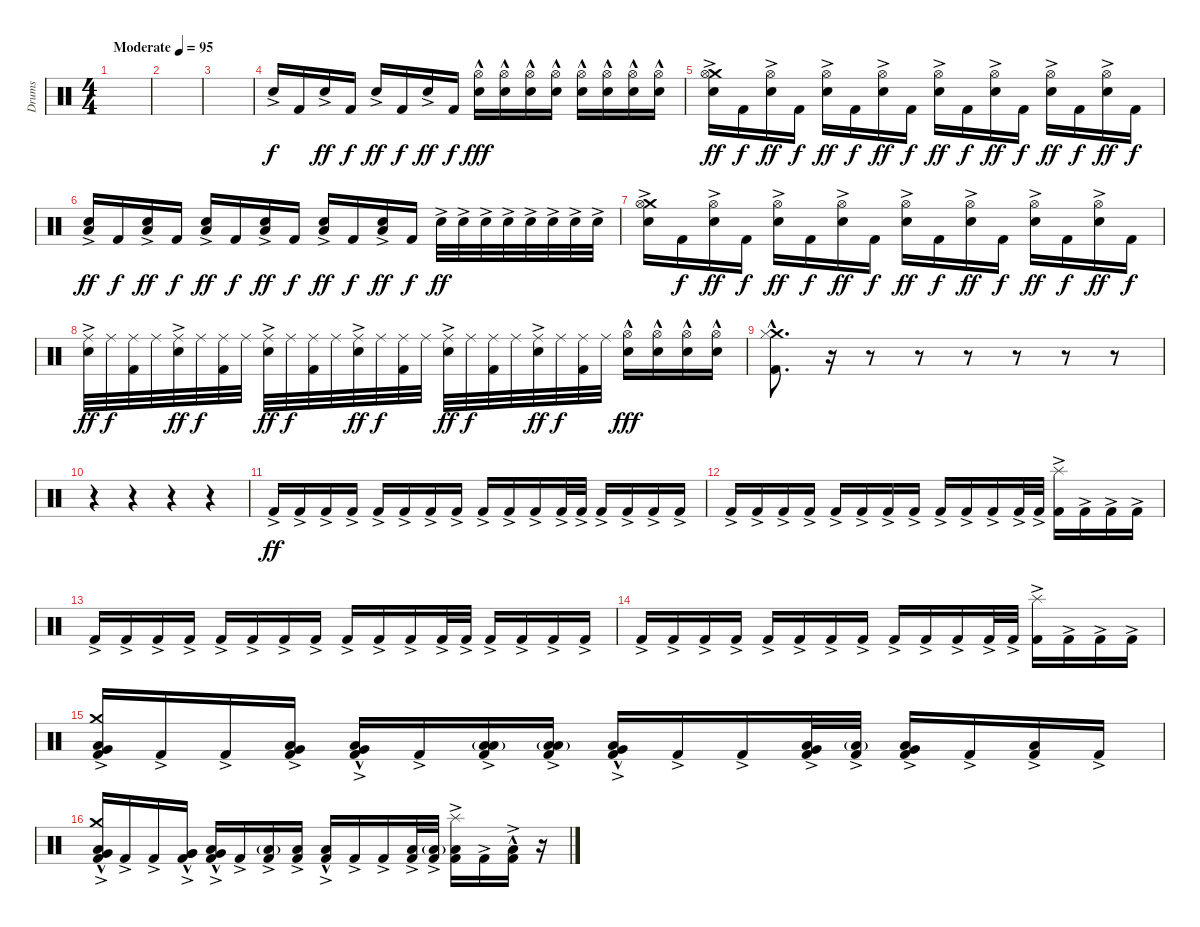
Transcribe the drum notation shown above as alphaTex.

\track ("Drums" "Drums") {instrument percussion}
\staff {score}
\articulation defaults
\ts (4 4)
\tempo (95 "Moderate")
\clef neutral
\ks c
|
|
|
"Snare (hit) 2"{ac}.16 "Kick (hit) 2".16{dy f} "Snare (hit) 2"{ac}.16{dy ff} "Kick (hit) 2".16{dy f} "Snare (hit) 2"{ac}.16{dy ff} "Kick (hit) 2".16{dy f} "Snare (hit) 2"{ac}.16{dy ff} "Kick (hit) 2".16{dy f} ("Hi-Hat (open)" "Snare (hit) 2"{hac}).16{dy fff} ("Hi-Hat (open)" "Snare (hit) 2"{hac}).16 ("Hi-Hat (open)" "Snare (hit) 2"{hac}).16 ("Hi-Hat (open)" "Snare (hit) 2"{hac}).16 ("Hi-Hat (open)" "Snare (hit) 2"{hac}).16 ("Hi-Hat (open)" "Snare (hit) 2"{hac}).16 ("Hi-Hat (open)" "Snare (hit) 2"{hac}).16 ("Hi-Hat (open)" "Snare (hit) 2"{hac}).16 |
("Crash medium (hit)" "Hi-Hat (open)" "Snare (hit) 2"{ac}).16{dy ff} "Kick (hit) 2".16{dy f} ("Hi-Hat (open)" "Snare (hit) 2"{ac}).16{dy ff} "Kick (hit) 2".16{dy f} ("Hi-Hat (open)" "Snare (hit) 2"{ac}).16{dy ff} "Kick (hit) 2".16{dy f} ("Hi-Hat (open)" "Snare (hit) 2"{ac}).16{dy ff} "Kick (hit) 2".16{dy f} ("Hi-Hat (open)" "Snare (hit) 2"{ac}).16{dy ff} "Kick (hit) 2".16{dy f} ("Hi-Hat (open)" "Snare (hit) 2"{ac}).16{dy ff} "Kick (hit) 2".16{dy f} ("Hi-Hat (open)" "Snare (hit) 2"{ac}).16{dy ff} "Kick (hit) 2".16{dy f} ("Hi-Hat (open)" "Snare (hit) 2"{ac}).16{dy ff} "Kick (hit) 2".16{dy f} |
("Low Floor Tom (hit)" "Snare (hit) 2"{ac}).16{dy ff} "Kick (hit) 2".16{dy f} ("Low Floor Tom (hit)" "Snare (hit) 2"{ac}).16{dy ff} "Kick (hit) 2".16{dy f} ("Low Floor Tom (hit)" "Snare (hit) 2"{ac}).16{dy ff} "Kick (hit) 2".16{dy f} ("Low Floor Tom (hit)" "Snare (hit) 2"{ac}).16{dy ff} "Kick (hit) 2".16{dy f} ("Low Floor Tom (hit)" "Snare (hit) 2"{ac}).16{dy ff} "Kick (hit) 2".16{dy f} ("Low Floor Tom (hit)" "Snare (hit) 2"{ac}).16{dy ff} "Kick (hit) 2".16{dy f} "Snare (hit) 2"{ac}.32{dy ff} "Snare (hit) 2"{ac}.32 "Snare (hit) 2"{ac}.32 "Snare (hit) 2"{ac}.32 "Snare (hit) 2"{ac}.32 "Snare (hit) 2"{ac}.32 "Snare (hit) 2"{ac}.32 "Snare (hit) 2"{ac}.32 |
("Crash medium (hit)" "Hi-Hat (open)" "Snare (hit) 2"{ac}).16 "Kick (hit) 2".16{dy f} ("Hi-Hat (open)" "Snare (hit) 2"{ac}).16{dy ff} "Kick (hit) 2".16{dy f} ("Hi-Hat (open)" "Snare (hit) 2"{ac}).16{dy ff} "Kick (hit) 2".16{dy f} ("Hi-Hat (open)" "Snare (hit) 2"{ac}).16{dy ff} "Kick (hit) 2".16{dy f} ("Hi-Hat (open)" "Snare (hit) 2"{ac}).16{dy ff} "Kick (hit) 2".16{dy f} ("Hi-Hat (open)" "Snare (hit) 2"{ac}).16{dy ff} "Kick (hit) 2".16{dy f} ("Hi-Hat (open)" "Snare (hit) 2"{ac}).16{dy ff} "Kick (hit) 2".16{dy f} ("Hi-Hat (open)" "Snare (hit) 2"{ac}).16{dy ff} "Kick (hit) 2".16{dy f} |
("Ride (middle)"{ac} "Snare (hit) 2"{ac}).32{dy ff} "Ride (middle)".32{dy f} ("Ride (middle)" "Kick (hit) 2").32 "Ride (middle)".32 ("Ride (middle)"{ac} "Snare (hit) 2"{ac}).32{dy ff} "Ride (middle)".32{dy f} ("Ride (middle)" "Kick (hit) 2").32 "Ride (middle)".32 ("Ride (middle)"{ac} "Snare (hit) 2"{ac}).32{dy ff} "Ride (middle)".32{dy f} ("Ride (middle)" "Kick (hit) 2").32 "Ride (middle)".32 ("Ride (middle)"{ac} "Snare (hit) 2"{ac}).32{dy ff} "Ride (middle)".32{dy f} ("Ride (middle)" "Kick (hit) 2").32 "Ride (middle)".32 ("Ride (middle)"{ac} "Snare (hit) 2"{ac}).32{dy ff} "Ride (middle)".32{dy f} ("Ride (middle)" "Kick (hit) 2").32 "Ride (middle)".32 ("Ride (middle)"{ac} "Snare (hit) 2"{ac}).32{dy ff} "Ride (middle)".32{dy f} ("Ride (middle)" "Kick (hit) 2").32 "Ride (middle)".32 ("Hi-Hat (open)" "Snare (hit) 2"{hac}).16{dy fff} ("Hi-Hat (open)" "Snare (hit) 2"{hac}).16 ("Hi-Hat (open)" "Snare (hit) 2"{hac}).16 ("Hi-Hat (open)" "Snare (hit) 2"{hac}).16 |
("Crash medium (hit)"{hac} "Hi-Hat (closed)" "Kick (hit) 2"{hac}).8{d} r.16{volume 0} r.8 r.8 r.8 r.8 r.8 r.8 |
r.4 r.4 r.4 r.4 |
"Kick (hit) 2"{ac}.16{dy ff volume 13} "Kick (hit) 2"{ac}.16 "Kick (hit) 2"{ac}.16 "Kick (hit) 2"{ac}.16 "Kick (hit) 2"{ac}.16 "Kick (hit) 2"{ac}.16 "Kick (hit) 2"{ac}.16 "Kick (hit) 2"{ac}.16 "Kick (hit) 2"{ac}.16 "Kick (hit) 2"{ac}.16 "Kick (hit) 2"{ac}.16 "Kick (hit) 2"{ac}.32 "Kick (hit) 2"{ac}.32 "Kick (hit) 2"{ac}.16 "Kick (hit) 2"{ac}.16 "Kick (hit) 2"{ac}.16 "Kick (hit) 2"{ac}.16 |
"Kick (hit) 2"{ac}.16 "Kick (hit) 2"{ac}.16 "Kick (hit) 2"{ac}.16 "Kick (hit) 2"{ac}.16 "Kick (hit) 2"{ac}.16 "Kick (hit) 2"{ac}.16 "Kick (hit) 2"{ac}.16 "Kick (hit) 2"{ac}.16 "Kick (hit) 2"{ac}.16 "Kick (hit) 2"{ac}.16 "Kick (hit) 2"{ac}.16 "Kick (hit) 2"{ac}.32 "Kick (hit) 2"{ac}.32 ("Splash (hit)" "Kick (hit) 2"{ac}).16 "Kick (hit) 2"{ac}.16 "Kick (hit) 2"{ac}.16 "Kick (hit) 2"{ac}.16 |
"Kick (hit) 2"{ac}.16 "Kick (hit) 2"{ac}.16 "Kick (hit) 2"{ac}.16 "Kick (hit) 2"{ac}.16 "Kick (hit) 2"{ac}.16 "Kick (hit) 2"{ac}.16 "Kick (hit) 2"{ac}.16 "Kick (hit) 2"{ac}.16 "Kick (hit) 2"{ac}.16 "Kick (hit) 2"{ac}.16 "Kick (hit) 2"{ac}.16 "Kick (hit) 2"{ac}.32 "Kick (hit) 2"{ac}.32 "Kick (hit) 2"{ac}.16 "Kick (hit) 2"{ac}.16 "Kick (hit) 2"{ac}.16 "Kick (hit) 2"{ac}.16 |
"Kick (hit) 2"{ac}.16 "Kick (hit) 2"{ac}.16 "Kick (hit) 2"{ac}.16 "Kick (hit) 2"{ac}.16 "Kick (hit) 2"{ac}.16 "Kick (hit) 2"{ac}.16 "Kick (hit) 2"{ac}.16 "Kick (hit) 2"{ac}.16 "Kick (hit) 2"{ac}.16 "Kick (hit) 2"{ac}.16 "Kick (hit) 2"{ac}.16 "Kick (hit) 2"{ac}.32 "Kick (hit) 2"{ac}.32 ("Splash (hit)" "Kick (hit) 2"{ac}).16 "Kick (hit) 2"{ac}.16 "Kick (hit) 2"{ac}.16 "Kick (hit) 2"{ac}.16 |
("Crash medium (hit)" "Very Low Tom (hit)" "Low Floor Tom (hit)" "Kick (hit) 2"{ac}).16 "Kick (hit) 2"{ac}.16 "Kick (hit) 2"{ac}.16 ("Low Tom (hit)" "Very Low Tom (hit)"{ac} "Kick (hit) 2"{ac}).16 ("Very Low Tom (hit)" "Low Floor Tom (hit)"{hac} "Kick (hit) 2"{ac}).16 "Kick (hit) 2"{ac}.16 ("Low Tom (hit)"{g} "Low Floor Tom (hit)"{g} "Kick (hit) 2"{ac}).16 ("Low Tom (hit)"{g} "Low Floor Tom (hit)" "Kick (hit) 2"{ac}).16 ("Very Low Tom (hit)" "Low Floor Tom (hit)"{hac} "Kick (hit) 2"{ac}).16 "Kick (hit) 2"{ac}.16 "Kick (hit) 2"{ac}.16 ("Very Low Tom (hit)" "Low Floor Tom (hit)" "Kick (hit) 2"{ac}).32 ("Low Floor Tom (hit)"{g} "Kick (hit) 2"{ac}).32 ("Very Low Tom (hit)" "Low Floor Tom (hit)"{ac} "Kick (hit) 2"{ac}).16 "Kick (hit) 2"{ac}.16 ("Low Tom (hit)" "Kick (hit) 2"{ac}).16 "Kick (hit) 2"{ac}.16 |
("Crash medium (hit)" "Very Low Tom (hit)" "Low Floor Tom (hit)"{hac} "Kick (hit) 2"{ac}).16 "Kick (hit) 2"{ac}.16 "Kick (hit) 2"{ac}.16 ("Very Low Tom (hit)" "Very Low Tom (hit)"{hac} "Kick (hit) 2"{ac}).16 ("Very Low Tom (hit)" "Low Floor Tom (hit)"{hac} "Kick (hit) 2"{ac}).16 "Kick (hit) 2"{ac}.16 ("Low Floor Tom (hit)"{g} "Kick (hit) 2"{ac}).16 ("Low Floor Tom (hit)" "Kick (hit) 2"{ac}).16 ("Low Floor Tom (hit)"{hac} "Kick (hit) 2"{ac}).16 "Kick (hit) 2"{ac}.16 "Kick (hit) 2"{ac}.16 ("Low Floor Tom (hit)" "Kick (hit) 2"{ac}).32 ("Low Floor Tom (hit)"{g} "Kick (hit) 2"{ac}).32 ("Splash (hit)" "Low Floor Tom (hit)"{ac} "Kick (hit) 2"{ac}).16 "Kick (hit) 2"{ac}.16 ("Low Tom (hit)"{hac} "Kick (hit) 2"{ac}).16 r.16
